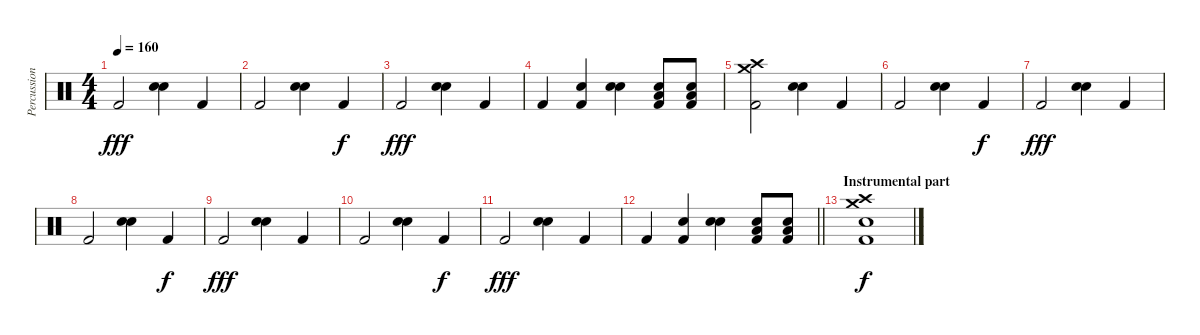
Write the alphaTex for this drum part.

\track ("Percussion" "Percussion") {instrument percussion}
\staff {score}
\articulation defaults
\ts (4 4)
\tempo 160
\clef neutral
\ks c "Kick (hit) 2".2{dy fff}
("Snare (hit) 2" "Electric Snare (hit)").4 "Kick (hit) 2".4 |
"Kick (hit) 2".2 ("Snare (hit) 2" "Electric Snare (hit)").4 "Kick (hit) 2".4{dy f} |
"Kick (hit) 2".2{dy fff} ("Snare (hit) 2" "Electric Snare (hit)").4 "Kick (hit) 2".4 |
"Kick (hit) 2".4 ("Kick (hit) 2" "Snare (hit) 2").4 ("Snare (hit) 2" "Snare (hit) 2").4 ("Kick (hit) 2" "Snare (hit) 2" "Low Floor Tom (hit)").8 ("Kick (hit) 2" "Snare (hit) 2" "Low Floor Tom (hit)").8 |
("Crash high (hit)" "Kick (hit) 2" "Crash medium (hit)").2 ("Snare (hit) 2" "Electric Snare (hit)").4 "Kick (hit) 2".4 |
"Kick (hit) 2".2 ("Snare (hit) 2" "Electric Snare (hit)").4 "Kick (hit) 2".4{dy f} |
"Kick (hit) 2".2{dy fff} ("Snare (hit) 2" "Electric Snare (hit)").4 "Kick (hit) 2".4 |
"Kick (hit) 2".2 ("Snare (hit) 2" "Electric Snare (hit)").4 "Kick (hit) 2".4{dy f} |
"Kick (hit) 2".2{dy fff} ("Snare (hit) 2" "Electric Snare (hit)").4 "Kick (hit) 2".4 |
"Kick (hit) 2".2 ("Snare (hit) 2" "Electric Snare (hit)").4 "Kick (hit) 2".4{dy f} |
"Kick (hit) 2".2{dy fff} ("Snare (hit) 2" "Electric Snare (hit)").4 "Kick (hit) 2".4 |
\barLineRight lightlight "Kick (hit) 2".4
("Kick (hit) 2" "Snare (hit) 2").4 ("Snare (hit) 2" "Snare (hit) 2").4 ("Kick (hit) 2" "Snare (hit) 2" "Low Floor Tom (hit)").8 ("Kick (hit) 2" "Snare (hit) 2" "Low Floor Tom (hit)").8 |
\section ("" "Instrumental part")
("Crash medium (hit)" "Crash high (hit)" "Snare (hit) 2" "Kick (hit) 2").1{dy f}
